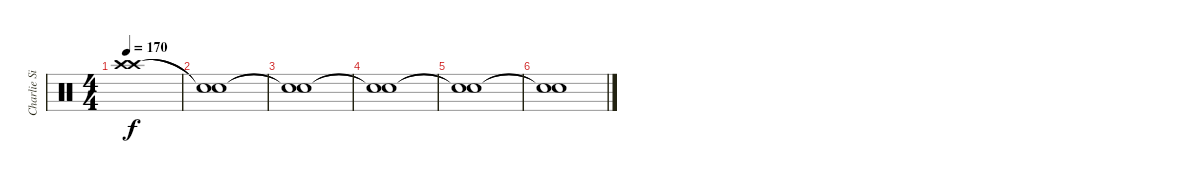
\track ("Charlie Simpson (Drums)" "Charlie Si") {instrument percussion}
\staff {score}
\articulation defaults
\ts (4 4)
\tempo 170
\clef neutral
\ks c
("Crash high (hit)" "Crash high (hit)").1{dy f} |
("Snare (hit)"{t} "Snare (hit)"{t}).1 |
("Snare (hit)"{t} "Snare (hit)"{t}).1 |
("Snare (hit)"{t} "Snare (hit)"{t}).1 |
("Snare (hit)"{t} "Snare (hit)"{t}).1 |
("Snare (hit)"{t} "Snare (hit)"{t}).1
